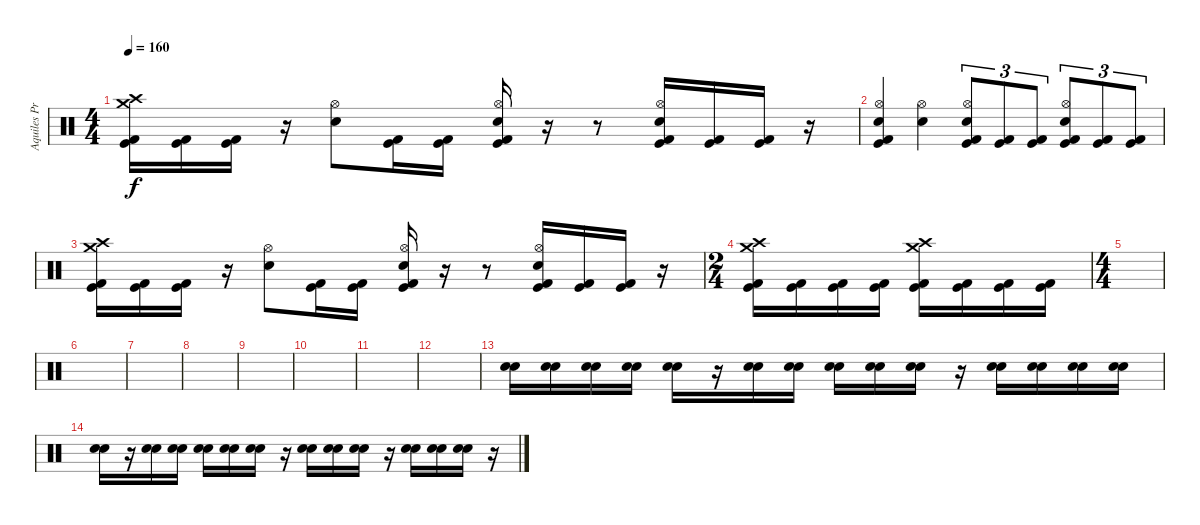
\track ("Aquiles Priester" "Aquiles Pr") {instrument percussion}
\staff {score}
\articulation defaults
\ts (4 4)
\tempo 160
\clef neutral
\ks c
("Crash medium (hit)" "Crash high (hit)" "Kick (hit)" "Kick (hit) 2").16{dy f} ("Kick (hit)" "Kick (hit) 2").16 ("Kick (hit)" "Kick (hit) 2").16 r.16 ("Hi-Hat (open)" "Electric Snare (hit)").8 ("Kick (hit)" "Kick (hit) 2").16 ("Kick (hit)" "Kick (hit) 2").16 ("Hi-Hat (open)" "Electric Snare (hit)" "Kick (hit)" "Kick (hit) 2").16 r.16 r.8 ("Hi-Hat (open)" "Electric Snare (hit)" "Kick (hit)" "Kick (hit) 2").16 ("Kick (hit)" "Kick (hit) 2").16 ("Kick (hit)" "Kick (hit) 2").16 r.16 |
("Hi-Hat (open)" "Electric Snare (hit)" "Kick (hit)" "Kick (hit) 2").4 ("Hi-Hat (open)" "Electric Snare (hit)").4 ("Hi-Hat (open)" "Electric Snare (hit)" "Kick (hit)" "Kick (hit) 2").8{tu (3 2)} ("Kick (hit)" "Kick (hit) 2").8{tu (3 2)} ("Kick (hit)" "Kick (hit) 2").8{tu (3 2)} ("Hi-Hat (open)" "Electric Snare (hit)" "Kick (hit)" "Kick (hit) 2").8{tu (3 2)} ("Kick (hit)" "Kick (hit) 2").8{tu (3 2)} ("Kick (hit)" "Kick (hit) 2").8{tu (3 2)} |
("Crash medium (hit)" "Crash high (hit)" "Kick (hit)" "Kick (hit) 2").16 ("Kick (hit)" "Kick (hit) 2").16 ("Kick (hit)" "Kick (hit) 2").16 r.16 ("Hi-Hat (open)" "Electric Snare (hit)").8 ("Kick (hit)" "Kick (hit) 2").16 ("Kick (hit)" "Kick (hit) 2").16 ("Hi-Hat (open)" "Electric Snare (hit)" "Kick (hit)" "Kick (hit) 2").16 r.16 r.8 ("Hi-Hat (open)" "Electric Snare (hit)" "Kick (hit)" "Kick (hit) 2").16 ("Kick (hit)" "Kick (hit) 2").16 ("Kick (hit)" "Kick (hit) 2").16 r.16 |
\ts (2 4)
("Crash medium (hit)" "Crash high (hit)" "Kick (hit)" "Kick (hit) 2").16 ("Kick (hit)" "Kick (hit) 2").16 ("Kick (hit)" "Kick (hit) 2").16 ("Kick (hit)" "Kick (hit) 2").16 ("Crash medium (hit)" "Crash high (hit)" "Kick (hit)" "Kick (hit) 2").16 ("Kick (hit)" "Kick (hit) 2").16 ("Kick (hit)" "Kick (hit) 2").16 ("Kick (hit)" "Kick (hit) 2").16 |
\ts (4 4)
|
|
|
|
|
|
|
|
("Electric Snare (hit)" "Electric Snare (hit)").16 ("Electric Snare (hit)" "Electric Snare (hit)").16 ("Electric Snare (hit)" "Electric Snare (hit)").16 ("Electric Snare (hit)" "Electric Snare (hit)").16 ("Electric Snare (hit)" "Electric Snare (hit)").16 r.16 ("Electric Snare (hit)" "Electric Snare (hit)").16 ("Electric Snare (hit)" "Electric Snare (hit)").16 ("Electric Snare (hit)" "Electric Snare (hit)").16 ("Electric Snare (hit)" "Electric Snare (hit)").16 ("Electric Snare (hit)" "Electric Snare (hit)").16 r.16 ("Electric Snare (hit)" "Electric Snare (hit)").16 ("Electric Snare (hit)" "Electric Snare (hit)").16 ("Electric Snare (hit)" "Electric Snare (hit)").16 ("Electric Snare (hit)" "Electric Snare (hit)").16 |
("Electric Snare (hit)" "Electric Snare (hit)").16 r.16 ("Electric Snare (hit)" "Electric Snare (hit)").16 ("Electric Snare (hit)" "Electric Snare (hit)").16 ("Electric Snare (hit)" "Electric Snare (hit)").16 ("Electric Snare (hit)" "Electric Snare (hit)").16 ("Electric Snare (hit)" "Electric Snare (hit)").16 r.16 ("Electric Snare (hit)" "Electric Snare (hit)").16 ("Electric Snare (hit)" "Electric Snare (hit)").16 ("Electric Snare (hit)" "Electric Snare (hit)").16 r.16 ("Electric Snare (hit)" "Electric Snare (hit)").16 ("Electric Snare (hit)" "Electric Snare (hit)").16 ("Electric Snare (hit)" "Electric Snare (hit)").16 r.16
